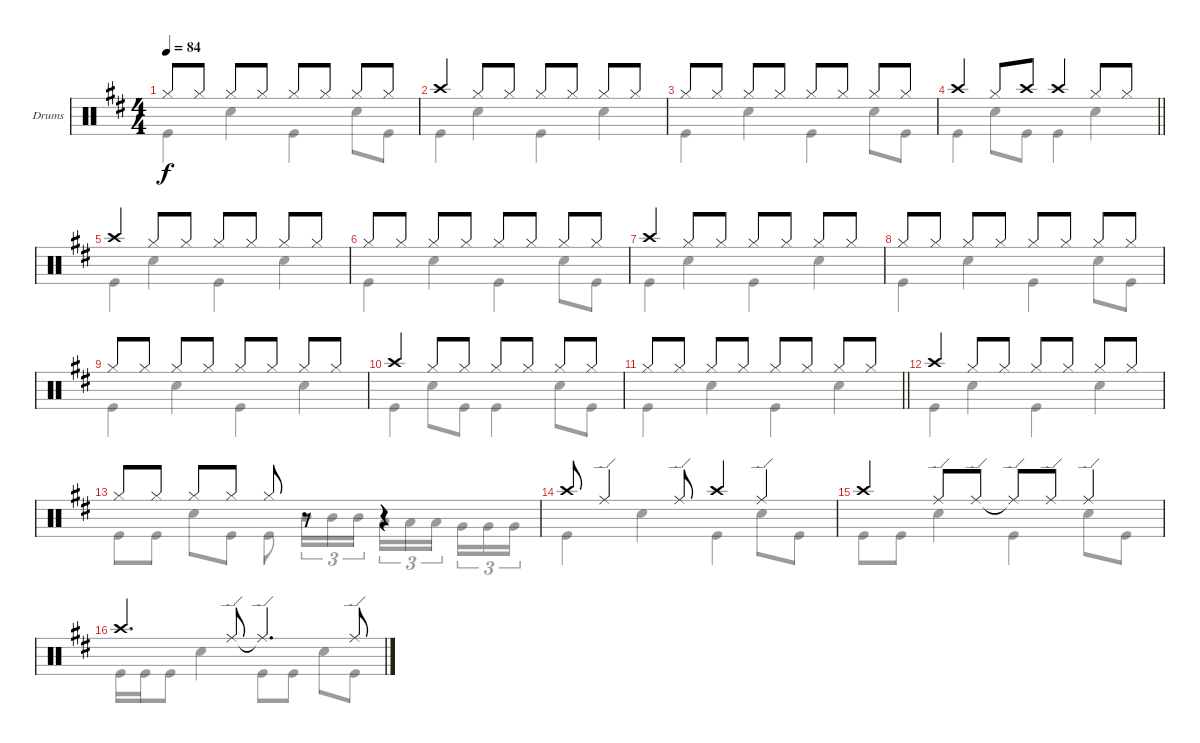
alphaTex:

\defaultSystemsLayout 4
\bracketExtendMode groupsimilarinstruments
\firstSystemTrackNameOrientation horizontal
\otherSystemsTrackNameOrientation horizontal
\track ("Drumkit" "Drums") {multiBarRest instrument percussion}
\staff {score}
\articulation defaults
\voice
\ts (4 4)
\tempo 84
\clef neutral
\ks bminor "Hi-Hat (closed)".8{dy f} "Hi-Hat (closed)".8 "Hi-Hat (closed)".8 "Hi-Hat (closed)".8 "Hi-Hat (closed)".8 "Hi-Hat (closed)".8 "Hi-Hat (closed)".8 "Hi-Hat (closed)".8
|
"Crash high (hit)".4 "Hi-Hat (closed)".8 "Hi-Hat (closed)".8 "Hi-Hat (closed)".8 "Hi-Hat (closed)".8 "Hi-Hat (closed)".8 "Hi-Hat (closed)".8 |
"Hi-Hat (closed)".8 "Hi-Hat (closed)".8 "Hi-Hat (closed)".8 "Hi-Hat (closed)".8 "Hi-Hat (closed)".8 "Hi-Hat (closed)".8 "Hi-Hat (closed)".8 "Hi-Hat (closed)".8 |
\barLineRight lightlight "Crash high (hit)".4 "Hi-Hat (closed)".8 "Crash high (hit)".8 "Crash high (hit)".4 "Hi-Hat (closed)".8 "Hi-Hat (closed)".8
|
"Crash high (hit)".4 "Hi-Hat (closed)".8 "Hi-Hat (closed)".8 "Hi-Hat (closed)".8 "Hi-Hat (closed)".8 "Hi-Hat (closed)".8 "Hi-Hat (closed)".8 |
"Hi-Hat (closed)".8 "Hi-Hat (closed)".8 "Hi-Hat (closed)".8 "Hi-Hat (closed)".8 "Hi-Hat (closed)".8 "Hi-Hat (closed)".8 "Hi-Hat (closed)".8 "Hi-Hat (closed)".8 |
"Crash high (hit)".4 "Hi-Hat (closed)".8 "Hi-Hat (closed)".8 "Hi-Hat (closed)".8 "Hi-Hat (closed)".8 "Hi-Hat (closed)".8 "Hi-Hat (closed)".8 |
"Hi-Hat (closed)".8 "Hi-Hat (closed)".8 "Hi-Hat (closed)".8 "Hi-Hat (closed)".8 "Hi-Hat (closed)".8 "Hi-Hat (closed)".8 "Hi-Hat (closed)".8 "Hi-Hat (closed)".8 |
"Hi-Hat (closed)".8 "Hi-Hat (closed)".8 "Hi-Hat (closed)".8 "Hi-Hat (closed)".8 "Hi-Hat (closed)".8 "Hi-Hat (closed)".8 "Hi-Hat (closed)".8 "Hi-Hat (closed)".8 |
"Crash high (hit)".4 "Hi-Hat (closed)".8 "Hi-Hat (closed)".8 "Hi-Hat (closed)".8 "Hi-Hat (closed)".8 "Hi-Hat (closed)".8 "Hi-Hat (closed)".8 |
\barLineRight lightlight "Hi-Hat (closed)".8 "Hi-Hat (closed)".8 "Hi-Hat (closed)".8 "Hi-Hat (closed)".8 "Hi-Hat (closed)".8 "Hi-Hat (closed)".8 "Hi-Hat (closed)".8 "Hi-Hat (closed)".8
|
"Crash high (hit)".4 "Hi-Hat (closed)".8 "Hi-Hat (closed)".8 "Hi-Hat (closed)".8 "Hi-Hat (closed)".8 "Hi-Hat (closed)".8 "Hi-Hat (closed)".8 |
"Hi-Hat (closed)".8 "Hi-Hat (closed)".8 "Hi-Hat (closed)".8 "Hi-Hat (closed)".8 "Hi-Hat (closed)".8 r.8 r.4 |
"Crash high (hit)".8 "Ride (edge)".4 "Ride (edge)".8 "Crash high (hit)".4 "Ride (edge)".4 |
"Crash high (hit)".4 "Ride (edge)".8 "Ride (edge)".8 "Ride (edge)"{t}.8 "Ride (edge)".8 "Ride (edge)".4 |
"Crash high (hit)".4{d} "Ride (edge)".8 "Ride (edge)"{t}.4{d} "Ride (edge)".8
\voice
\clef neutral
\ottava regular
\simile none
\ks bminor "Kick (hit)".4{dy f} "Snare (hit) 2".4 "Kick (hit)".4 "Snare (hit) 2".8 "Kick (hit)".8
|
"Kick (hit)".4 "Snare (hit) 2".4 "Kick (hit)".4 "Snare (hit) 2".4 |
"Kick (hit)".4 "Snare (hit) 2".4 "Kick (hit)".4 "Snare (hit) 2".8 "Kick (hit)".8 |
\barLineRight lightlight "Kick (hit)".4 "Snare (hit) 2".8 "Kick (hit)".8 "Kick (hit)".4 "Snare (hit) 2".4
|
"Kick (hit)".4 "Snare (hit) 2".4 "Kick (hit)".4 "Snare (hit) 2".4 |
"Kick (hit)".4 "Snare (hit) 2".4 "Kick (hit)".4 "Snare (hit) 2".8 "Kick (hit)".8 |
"Kick (hit)".4 "Snare (hit) 2".4 "Kick (hit)".4 "Snare (hit) 2".4 |
"Kick (hit)".4 "Snare (hit) 2".4 "Kick (hit)".4 "Snare (hit) 2".8 "Kick (hit)".8 |
"Kick (hit)".4 "Snare (hit) 2".4 "Kick (hit)".4 "Snare (hit) 2".4 |
"Kick (hit)".4 "Snare (hit) 2".8 "Kick (hit)".8 "Kick (hit)".4 "Snare (hit) 2".8 "Kick (hit)".8 |
\barLineRight lightlight "Kick (hit)".4 "Snare (hit) 2".4 "Kick (hit)".4 "Snare (hit) 2".4
|
"Kick (hit)".4 "Snare (hit) 2".4 "Kick (hit)".4 "Snare (hit) 2".4 |
"Kick (hit)".8 "Kick (hit)".8 "Snare (hit) 2".8 "Kick (hit)".8 "Kick (hit)".8 "Mid Tom (hit)".16{tu (3 2)} "Mid Tom (hit)".16{tu (3 2)} "Mid Tom (hit)".16{tu (3 2)} "Low Tom (hit)".16{tu (3 2)} "Low Tom (hit)".16{tu (3 2)} "Low Tom (hit)".16{tu (3 2)} "Very Low Tom (hit)".16{tu (3 2)} "Very Low Tom (hit)".16{tu (3 2)} "Very Low Tom (hit)".16{tu (3 2)} |
"Kick (hit)".4 "Snare (hit) 2".4 "Kick (hit)".4 "Snare (hit) 2".8 "Kick (hit)".8 |
"Kick (hit)".8 "Kick (hit)".8 "Snare (hit) 2".4 "Kick (hit)".4 "Snare (hit) 2".8 "Kick (hit)".8 |
"Kick (hit)".16 "Kick (hit)".16 "Kick (hit)".8 "Snare (hit) 2".4 "Kick (hit)".8 "Kick (hit)".8 "Snare (hit) 2".8 "Kick (hit)".8
